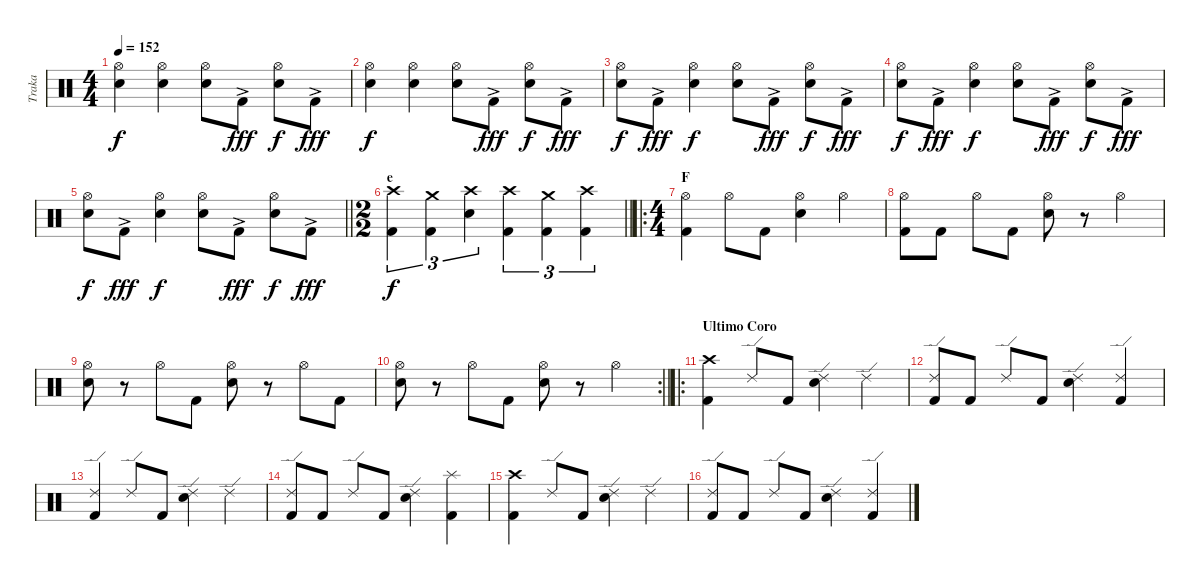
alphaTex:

\track ("Traka" "Traka") {instrument percussion}
\staff {score}
\articulation defaults
\ts (4 4)
\tempo 152
\clef neutral
\ks c
("Hi-Hat (open)" "Electric Snare (hit)").4{dy f} ("Hi-Hat (open)" "Electric Snare (hit)").4 ("Hi-Hat (open)" "Electric Snare (hit)").8 "Kick (hit) 2"{ac}.8{dy fff} ("Hi-Hat (open)" "Electric Snare (hit)").8{dy f} "Kick (hit) 2"{ac}.8{dy fff} |
("Hi-Hat (open)" "Electric Snare (hit)").4{dy f} ("Hi-Hat (open)" "Electric Snare (hit)").4 ("Hi-Hat (open)" "Electric Snare (hit)").8 "Kick (hit) 2"{ac}.8{dy fff} ("Hi-Hat (open)" "Electric Snare (hit)").8{dy f} "Kick (hit) 2"{ac}.8{dy fff} |
("Hi-Hat (open)" "Electric Snare (hit)").8{dy f} "Kick (hit) 2"{ac}.8{dy fff} ("Hi-Hat (open)" "Electric Snare (hit)").4{dy f} ("Hi-Hat (open)" "Electric Snare (hit)").8 "Kick (hit) 2"{ac}.8{dy fff} ("Hi-Hat (open)" "Electric Snare (hit)").8{dy f} "Kick (hit) 2"{ac}.8{dy fff} |
("Hi-Hat (open)" "Electric Snare (hit)").8{dy f} "Kick (hit) 2"{ac}.8{dy fff} ("Hi-Hat (open)" "Electric Snare (hit)").4{dy f} ("Hi-Hat (open)" "Electric Snare (hit)").8 "Kick (hit) 2"{ac}.8{dy fff} ("Hi-Hat (open)" "Electric Snare (hit)").8{dy f} "Kick (hit) 2"{ac}.8{dy fff} |
\barLineRight lightlight
("Hi-Hat (open)" "Electric Snare (hit)").8{dy f} "Kick (hit) 2"{ac}.8{dy fff} ("Hi-Hat (open)" "Electric Snare (hit)").4{dy f} ("Hi-Hat (open)" "Electric Snare (hit)").8 "Kick (hit) 2"{ac}.8{dy fff} ("Hi-Hat (open)" "Electric Snare (hit)").8{dy f} "Kick (hit) 2"{ac}.8{dy fff} |
\ts (2 2)
\section ("" "e")
\barLineRight lightlight
("Crash high (hit)" "Kick (hit) 2").4{tu (3 2) dy f} ("Crash medium (hit)" "Kick (hit) 2").4{tu (3 2)} ("Crash high (hit)" "Electric Snare (hit)").4{tu (3 2)} ("Crash high (hit)" "Kick (hit) 2").4{tu (3 2)} ("Crash medium (hit)" "Kick (hit) 2").4{tu (3 2)} ("Crash high (hit)" "Kick (hit) 2").4{tu (3 2)} |
\ro
\ts (4 4)
\section ("" "F")
("Hi-Hat (open)" "Kick (hit) 2").4 "Hi-Hat (open)".8 "Kick (hit) 2".8 ("Hi-Hat (open)" "Electric Snare (hit)").4 "Hi-Hat (open)".4 |
("Hi-Hat (open)" "Kick (hit) 2").8 "Kick (hit) 2".8 "Hi-Hat (open)".8 "Kick (hit) 2".8 ("Hi-Hat (open)" "Electric Snare (hit)").8 r.8 "Hi-Hat (open)".4 |
("Hi-Hat (open)" "Electric Snare (hit)").8 r.8 "Hi-Hat (open)".8 "Kick (hit) 2".8 ("Hi-Hat (open)" "Electric Snare (hit)").8 r.8 "Hi-Hat (open)".8 "Kick (hit) 2".8 |
\rc 2
\barLineRight lightlight
("Hi-Hat (open)" "Electric Snare (hit)").8 r.8 "Hi-Hat (open)".8 "Kick (hit) 2".8 ("Hi-Hat (open)" "Electric Snare (hit)").8 r.8 "Hi-Hat (open)".4 |
\ro
\section ("" "Ultimo Coro")
("Crash high (hit)" "Kick (hit) 2").4 "Ride (edge) 2".8 "Kick (hit) 2".8 ("Ride (edge) 2" "Electric Snare (hit)").4 "Ride (edge) 2".4 |
("Ride (edge) 2" "Kick (hit) 2").8 "Kick (hit) 2".8 "Ride (edge) 2".8 "Kick (hit) 2".8 ("Ride (edge) 2" "Electric Snare (hit)").4 ("Ride (edge) 2" "Kick (hit) 2").4 |
("Ride (edge) 2" "Kick (hit) 2").4 "Ride (edge) 2".8 "Kick (hit) 2".8 ("Ride (edge) 2" "Electric Snare (hit)").4 "Ride (edge) 2".4 |
("Ride (edge) 2" "Kick (hit) 2").8 "Kick (hit) 2".8 "Ride (edge) 2".8 "Kick (hit) 2".8 ("Ride (edge) 2" "Electric Snare (hit)").4 ("Splash (hit)" "Kick (hit) 2").4 |
("Crash high (hit)" "Kick (hit) 2").4 "Ride (edge) 2".8 "Kick (hit) 2".8 ("Ride (edge) 2" "Electric Snare (hit)").4 "Ride (edge) 2".4 |
("Ride (edge) 2" "Kick (hit) 2").8 "Kick (hit) 2".8 "Ride (edge) 2".8 "Kick (hit) 2".8 ("Ride (edge) 2" "Electric Snare (hit)").4 ("Ride (edge) 2" "Kick (hit) 2").4
